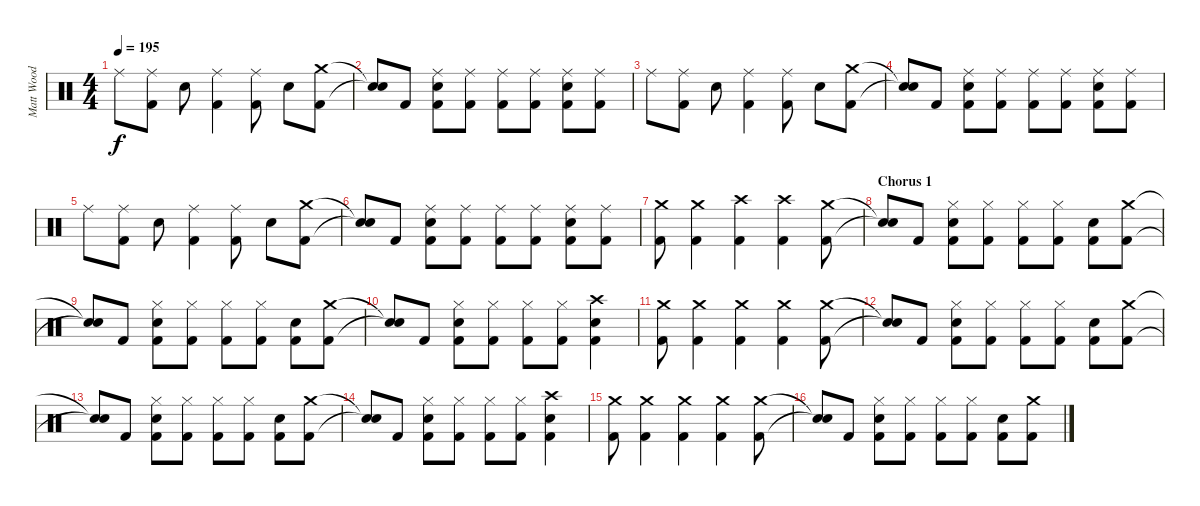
\track ("Matt Wood" "Matt Wood") {instrument percussion}
\staff {score}
\articulation defaults
\ts (4 4)
\tempo 195
\clef neutral
\ks c "Ride (middle)".8{dy f}
("Ride (middle)" "Kick (hit) 2").8 "Snare (hit) 2".8 ("Ride (middle)" "Kick (hit) 2").4 ("Ride (middle)" "Kick (hit) 2").8 "Snare (hit) 2".8 ("Crash medium (hit)" "Kick (hit) 2").8 |
("Snare (hit)"{t} "Snare (hit)"{t}).8 "Kick (hit) 2".8 ("Ride (middle)" "Snare (hit) 2" "Kick (hit) 2").8 ("Ride (middle)" "Kick (hit) 2").8 ("Ride (middle)" "Kick (hit) 2").8 ("Ride (middle)" "Kick (hit) 2").8 ("Ride (middle)" "Snare (hit) 2" "Kick (hit) 2").8 ("Ride (middle)" "Kick (hit) 2").8 |
"Ride (middle)".8 ("Ride (middle)" "Kick (hit) 2").8 "Snare (hit) 2".8 ("Ride (middle)" "Kick (hit) 2").4 ("Ride (middle)" "Kick (hit) 2").8 "Snare (hit) 2".8 ("Crash medium (hit)" "Kick (hit) 2").8 |
("Snare (hit)"{t} "Snare (hit)"{t}).8 "Kick (hit) 2".8 ("Ride (middle)" "Snare (hit) 2" "Kick (hit) 2").8 ("Ride (middle)" "Kick (hit) 2").8 ("Ride (middle)" "Kick (hit) 2").8 ("Ride (middle)" "Kick (hit) 2").8 ("Ride (middle)" "Snare (hit) 2" "Kick (hit) 2").8 ("Ride (middle)" "Kick (hit) 2").8 |
"Ride (middle)".8 ("Ride (middle)" "Kick (hit) 2").8 "Snare (hit) 2".8 ("Ride (middle)" "Kick (hit) 2").4 ("Ride (middle)" "Kick (hit) 2").8 "Snare (hit) 2".8 ("Crash medium (hit)" "Kick (hit) 2").8 |
("Snare (hit)"{t} "Snare (hit)"{t}).8 "Kick (hit) 2".8 ("Ride (middle)" "Snare (hit) 2" "Kick (hit) 2").8 ("Ride (middle)" "Kick (hit) 2").8 ("Ride (middle)" "Kick (hit) 2").8 ("Ride (middle)" "Kick (hit) 2").8 ("Ride (middle)" "Snare (hit) 2" "Kick (hit) 2").8 ("Ride (middle)" "Kick (hit) 2").8 |
("Crash medium (hit)" "Kick (hit) 2").8 ("Crash medium (hit)" "Kick (hit) 2").4 ("Crash high (hit)" "Kick (hit) 2").4 ("Crash high (hit)" "Kick (hit) 2").4 ("Crash medium (hit)" "Kick (hit) 2").8 |
\section ("" "Chorus 1")
("Snare (hit)"{t} "Snare (hit)"{t}).8 "Kick (hit) 2".8 ("Hi-Hat (closed)" "Snare (hit) 2" "Kick (hit) 2").8 ("Hi-Hat (closed)" "Kick (hit) 2").8 ("Hi-Hat (closed)" "Kick (hit) 2").8 ("Hi-Hat (closed)" "Kick (hit) 2").8 ("Snare (hit) 2" "Kick (hit) 2").8 ("Crash medium (hit)" "Kick (hit) 2").8 |
("Snare (hit)"{t} "Snare (hit)"{t}).8 "Kick (hit) 2".8 ("Hi-Hat (closed)" "Snare (hit) 2" "Kick (hit) 2").8 ("Hi-Hat (closed)" "Kick (hit) 2").8 ("Hi-Hat (closed)" "Kick (hit) 2").8 ("Hi-Hat (closed)" "Kick (hit) 2").8 ("Snare (hit) 2" "Kick (hit) 2").8 ("Crash medium (hit)" "Kick (hit) 2").8 |
("Snare (hit)"{t} "Snare (hit)"{t}).8 "Kick (hit) 2".8 ("Hi-Hat (closed)" "Snare (hit) 2" "Kick (hit) 2").8 ("Hi-Hat (closed)" "Kick (hit) 2").8 ("Hi-Hat (closed)" "Kick (hit) 2").8 ("Hi-Hat (closed)" "Kick (hit) 2").8 ("Crash high (hit)" "Snare (hit) 2" "Kick (hit) 2").4 |
("Crash medium (hit)" "Kick (hit) 2").8 ("Crash medium (hit)" "Kick (hit) 2").4 ("Crash medium (hit)" "Kick (hit) 2").4 ("Crash medium (hit)" "Kick (hit) 2").4 ("Crash medium (hit)" "Kick (hit) 2").8 |
("Snare (hit)"{t} "Snare (hit)"{t}).8 "Kick (hit) 2".8 ("Hi-Hat (closed)" "Snare (hit) 2" "Kick (hit) 2").8 ("Hi-Hat (closed)" "Kick (hit) 2").8 ("Hi-Hat (closed)" "Kick (hit) 2").8 ("Hi-Hat (closed)" "Kick (hit) 2").8 ("Snare (hit) 2" "Kick (hit) 2").8 ("Crash medium (hit)" "Kick (hit) 2").8 |
("Snare (hit)"{t} "Snare (hit)"{t}).8 "Kick (hit) 2".8 ("Hi-Hat (closed)" "Snare (hit) 2" "Kick (hit) 2").8 ("Hi-Hat (closed)" "Kick (hit) 2").8 ("Hi-Hat (closed)" "Kick (hit) 2").8 ("Hi-Hat (closed)" "Kick (hit) 2").8 ("Snare (hit) 2" "Kick (hit) 2").8 ("Crash medium (hit)" "Kick (hit) 2").8 |
("Snare (hit)"{t} "Snare (hit)"{t}).8 "Kick (hit) 2".8 ("Hi-Hat (closed)" "Snare (hit) 2" "Kick (hit) 2").8 ("Hi-Hat (closed)" "Kick (hit) 2").8 ("Hi-Hat (closed)" "Kick (hit) 2").8 ("Hi-Hat (closed)" "Kick (hit) 2").8 ("Crash high (hit)" "Snare (hit) 2" "Kick (hit) 2").4 |
("Crash medium (hit)" "Kick (hit) 2").8 ("Crash medium (hit)" "Kick (hit) 2").4 ("Crash medium (hit)" "Kick (hit) 2").4 ("Crash medium (hit)" "Kick (hit) 2").4 ("Crash medium (hit)" "Kick (hit) 2").8 |
("Snare (hit)"{t} "Snare (hit)"{t}).8 "Kick (hit) 2".8 ("Hi-Hat (closed)" "Snare (hit) 2" "Kick (hit) 2").8 ("Hi-Hat (closed)" "Kick (hit) 2").8 ("Hi-Hat (closed)" "Kick (hit) 2").8 ("Hi-Hat (closed)" "Kick (hit) 2").8 ("Snare (hit) 2" "Kick (hit) 2").8 ("Crash medium (hit)" "Kick (hit) 2").8
